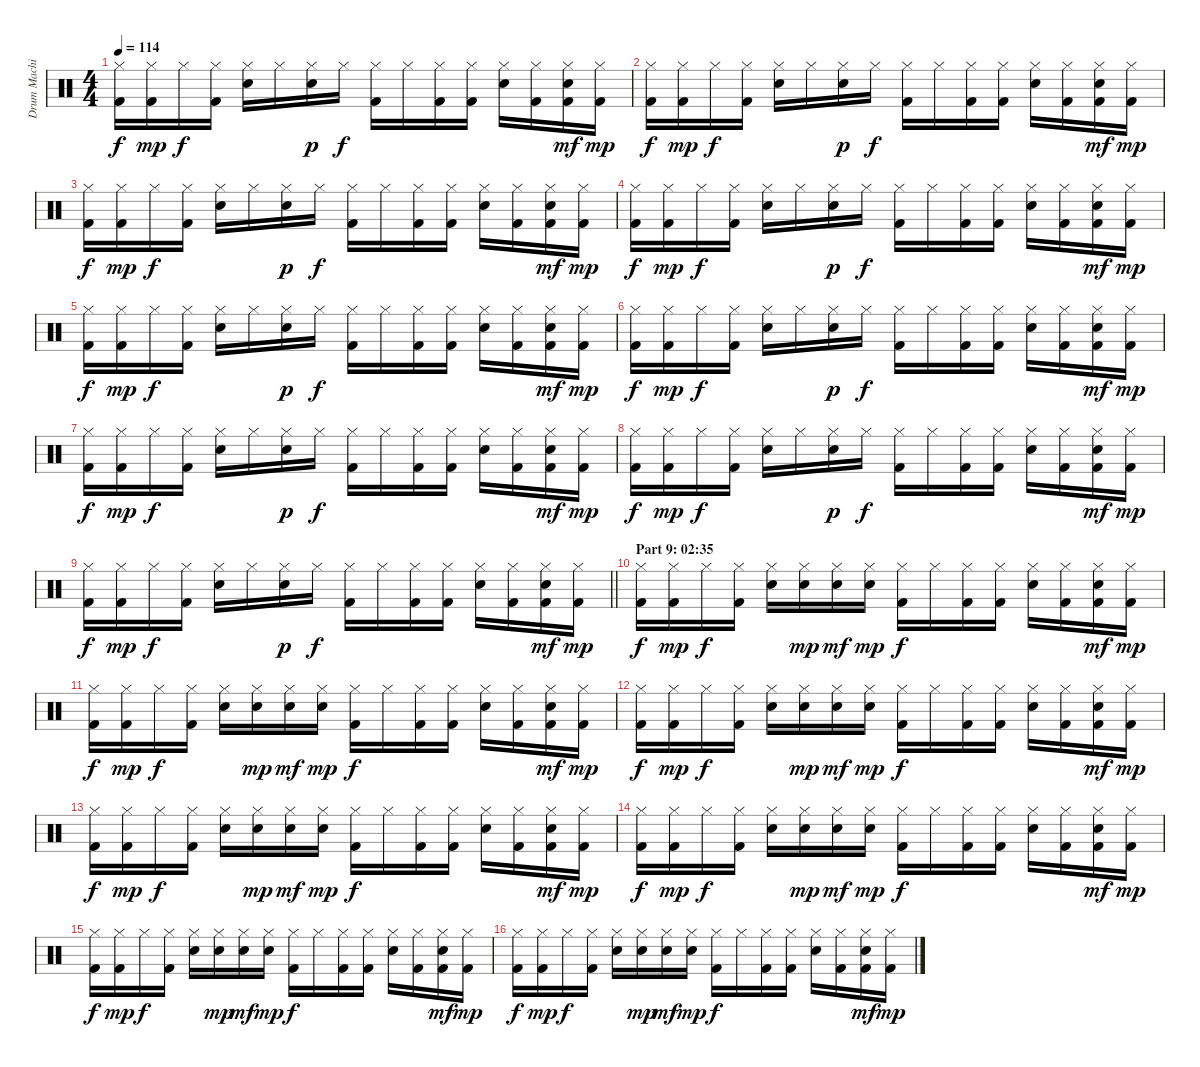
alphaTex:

\track ("Drum Machine" "Drum Machi") {instrument percussion}
\staff {score}
\articulation defaults
\ts (4 4)
\tempo 114
\clef neutral
\ks c
("Hi-Hat (closed)" "Kick (hit) 2").16{dy f} ("Hi-Hat (closed)" "Kick (hit) 2").16{dy mp} "Hi-Hat (closed)".16{dy f} ("Hi-Hat (closed)" "Kick (hit) 2").16 ("Hi-Hat (closed)" "Electric Snare (hit)").16 "Hi-Hat (closed)".16 ("Hi-Hat (closed)" "Electric Snare (hit)").16{dy p} "Hi-Hat (closed)".16{dy f} ("Hi-Hat (closed)" "Kick (hit) 2").16 "Hi-Hat (closed)".16 ("Hi-Hat (closed)" "Kick (hit) 2").16 ("Hi-Hat (closed)" "Kick (hit) 2").16 ("Hi-Hat (closed)" "Electric Snare (hit)").16 ("Hi-Hat (closed)" "Kick (hit) 2").16 ("Hi-Hat (closed)" "Electric Snare (hit)" "Kick (hit) 2").16{dy mf} ("Hi-Hat (closed)" "Kick (hit) 2").16{dy mp} |
("Hi-Hat (closed)" "Kick (hit) 2").16{dy f} ("Hi-Hat (closed)" "Kick (hit) 2").16{dy mp} "Hi-Hat (closed)".16{dy f} ("Hi-Hat (closed)" "Kick (hit) 2").16 ("Hi-Hat (closed)" "Electric Snare (hit)").16 "Hi-Hat (closed)".16 ("Hi-Hat (closed)" "Electric Snare (hit)").16{dy p} "Hi-Hat (closed)".16{dy f} ("Hi-Hat (closed)" "Kick (hit) 2").16 "Hi-Hat (closed)".16 ("Hi-Hat (closed)" "Kick (hit) 2").16 ("Hi-Hat (closed)" "Kick (hit) 2").16 ("Hi-Hat (closed)" "Electric Snare (hit)").16 ("Hi-Hat (closed)" "Kick (hit) 2").16 ("Hi-Hat (closed)" "Electric Snare (hit)" "Kick (hit) 2").16{dy mf} ("Hi-Hat (closed)" "Kick (hit) 2").16{dy mp} |
("Hi-Hat (closed)" "Kick (hit) 2").16{dy f} ("Hi-Hat (closed)" "Kick (hit) 2").16{dy mp} "Hi-Hat (closed)".16{dy f} ("Hi-Hat (closed)" "Kick (hit) 2").16 ("Hi-Hat (closed)" "Electric Snare (hit)").16 "Hi-Hat (closed)".16 ("Hi-Hat (closed)" "Electric Snare (hit)").16{dy p} "Hi-Hat (closed)".16{dy f} ("Hi-Hat (closed)" "Kick (hit) 2").16 "Hi-Hat (closed)".16 ("Hi-Hat (closed)" "Kick (hit) 2").16 ("Hi-Hat (closed)" "Kick (hit) 2").16 ("Hi-Hat (closed)" "Electric Snare (hit)").16 ("Hi-Hat (closed)" "Kick (hit) 2").16 ("Hi-Hat (closed)" "Electric Snare (hit)" "Kick (hit) 2").16{dy mf} ("Hi-Hat (closed)" "Kick (hit) 2").16{dy mp} |
("Hi-Hat (closed)" "Kick (hit) 2").16{dy f} ("Hi-Hat (closed)" "Kick (hit) 2").16{dy mp} "Hi-Hat (closed)".16{dy f} ("Hi-Hat (closed)" "Kick (hit) 2").16 ("Hi-Hat (closed)" "Electric Snare (hit)").16 "Hi-Hat (closed)".16 ("Hi-Hat (closed)" "Electric Snare (hit)").16{dy p} "Hi-Hat (closed)".16{dy f} ("Hi-Hat (closed)" "Kick (hit) 2").16 "Hi-Hat (closed)".16 ("Hi-Hat (closed)" "Kick (hit) 2").16 ("Hi-Hat (closed)" "Kick (hit) 2").16 ("Hi-Hat (closed)" "Electric Snare (hit)").16 ("Hi-Hat (closed)" "Kick (hit) 2").16 ("Hi-Hat (closed)" "Electric Snare (hit)" "Kick (hit) 2").16{dy mf} ("Hi-Hat (closed)" "Kick (hit) 2").16{dy mp} |
("Hi-Hat (closed)" "Kick (hit) 2").16{dy f} ("Hi-Hat (closed)" "Kick (hit) 2").16{dy mp} "Hi-Hat (closed)".16{dy f} ("Hi-Hat (closed)" "Kick (hit) 2").16 ("Hi-Hat (closed)" "Electric Snare (hit)").16 "Hi-Hat (closed)".16 ("Hi-Hat (closed)" "Electric Snare (hit)").16{dy p} "Hi-Hat (closed)".16{dy f} ("Hi-Hat (closed)" "Kick (hit) 2").16 "Hi-Hat (closed)".16 ("Hi-Hat (closed)" "Kick (hit) 2").16 ("Hi-Hat (closed)" "Kick (hit) 2").16 ("Hi-Hat (closed)" "Electric Snare (hit)").16 ("Hi-Hat (closed)" "Kick (hit) 2").16 ("Hi-Hat (closed)" "Electric Snare (hit)" "Kick (hit) 2").16{dy mf} ("Hi-Hat (closed)" "Kick (hit) 2").16{dy mp} |
("Hi-Hat (closed)" "Kick (hit) 2").16{dy f} ("Hi-Hat (closed)" "Kick (hit) 2").16{dy mp} "Hi-Hat (closed)".16{dy f} ("Hi-Hat (closed)" "Kick (hit) 2").16 ("Hi-Hat (closed)" "Electric Snare (hit)").16 "Hi-Hat (closed)".16 ("Hi-Hat (closed)" "Electric Snare (hit)").16{dy p} "Hi-Hat (closed)".16{dy f} ("Hi-Hat (closed)" "Kick (hit) 2").16 "Hi-Hat (closed)".16 ("Hi-Hat (closed)" "Kick (hit) 2").16 ("Hi-Hat (closed)" "Kick (hit) 2").16 ("Hi-Hat (closed)" "Electric Snare (hit)").16 ("Hi-Hat (closed)" "Kick (hit) 2").16 ("Hi-Hat (closed)" "Electric Snare (hit)" "Kick (hit) 2").16{dy mf} ("Hi-Hat (closed)" "Kick (hit) 2").16{dy mp} |
("Hi-Hat (closed)" "Kick (hit) 2").16{dy f} ("Hi-Hat (closed)" "Kick (hit) 2").16{dy mp} "Hi-Hat (closed)".16{dy f} ("Hi-Hat (closed)" "Kick (hit) 2").16 ("Hi-Hat (closed)" "Electric Snare (hit)").16 "Hi-Hat (closed)".16 ("Hi-Hat (closed)" "Electric Snare (hit)").16{dy p} "Hi-Hat (closed)".16{dy f} ("Hi-Hat (closed)" "Kick (hit) 2").16 "Hi-Hat (closed)".16 ("Hi-Hat (closed)" "Kick (hit) 2").16 ("Hi-Hat (closed)" "Kick (hit) 2").16 ("Hi-Hat (closed)" "Electric Snare (hit)").16 ("Hi-Hat (closed)" "Kick (hit) 2").16 ("Hi-Hat (closed)" "Electric Snare (hit)" "Kick (hit) 2").16{dy mf} ("Hi-Hat (closed)" "Kick (hit) 2").16{dy mp} |
("Hi-Hat (closed)" "Kick (hit) 2").16{dy f} ("Hi-Hat (closed)" "Kick (hit) 2").16{dy mp} "Hi-Hat (closed)".16{dy f} ("Hi-Hat (closed)" "Kick (hit) 2").16 ("Hi-Hat (closed)" "Electric Snare (hit)").16 "Hi-Hat (closed)".16 ("Hi-Hat (closed)" "Electric Snare (hit)").16{dy p} "Hi-Hat (closed)".16{dy f} ("Hi-Hat (closed)" "Kick (hit) 2").16 "Hi-Hat (closed)".16 ("Hi-Hat (closed)" "Kick (hit) 2").16 ("Hi-Hat (closed)" "Kick (hit) 2").16 ("Hi-Hat (closed)" "Electric Snare (hit)").16 ("Hi-Hat (closed)" "Kick (hit) 2").16 ("Hi-Hat (closed)" "Electric Snare (hit)" "Kick (hit) 2").16{dy mf} ("Hi-Hat (closed)" "Kick (hit) 2").16{dy mp} |
\barLineRight lightlight
("Hi-Hat (closed)" "Kick (hit) 2").16{dy f} ("Hi-Hat (closed)" "Kick (hit) 2").16{dy mp} "Hi-Hat (closed)".16{dy f} ("Hi-Hat (closed)" "Kick (hit) 2").16 ("Hi-Hat (closed)" "Electric Snare (hit)").16 "Hi-Hat (closed)".16 ("Hi-Hat (closed)" "Electric Snare (hit)").16{dy p} "Hi-Hat (closed)".16{dy f} ("Hi-Hat (closed)" "Kick (hit) 2").16 "Hi-Hat (closed)".16 ("Hi-Hat (closed)" "Kick (hit) 2").16 ("Hi-Hat (closed)" "Kick (hit) 2").16 ("Hi-Hat (closed)" "Electric Snare (hit)").16 ("Hi-Hat (closed)" "Kick (hit) 2").16 ("Hi-Hat (closed)" "Electric Snare (hit)" "Kick (hit) 2").16{dy mf} ("Hi-Hat (closed)" "Kick (hit) 2").16{dy mp} |
\section ("" "Part 9: 02:35")
("Hi-Hat (closed)" "Kick (hit) 2").16{dy f} ("Hi-Hat (closed)" "Kick (hit) 2").16{dy mp} "Hi-Hat (closed)".16{dy f} ("Hi-Hat (closed)" "Kick (hit) 2").16 ("Hi-Hat (closed)" "Electric Snare (hit)").16 ("Hi-Hat (closed)" "Electric Snare (hit)").16{dy mp} ("Hi-Hat (closed)" "Electric Snare (hit)").16{dy mf} ("Hi-Hat (closed)" "Electric Snare (hit)").16{dy mp} ("Hi-Hat (closed)" "Kick (hit) 2").16{dy f} "Hi-Hat (closed)".16 ("Hi-Hat (closed)" "Kick (hit) 2").16 ("Hi-Hat (closed)" "Kick (hit) 2").16 ("Hi-Hat (closed)" "Electric Snare (hit)").16 ("Hi-Hat (closed)" "Kick (hit) 2").16 ("Hi-Hat (closed)" "Electric Snare (hit)" "Kick (hit) 2").16{dy mf} ("Hi-Hat (closed)" "Kick (hit) 2").16{dy mp} |
("Hi-Hat (closed)" "Kick (hit) 2").16{dy f} ("Hi-Hat (closed)" "Kick (hit) 2").16{dy mp} "Hi-Hat (closed)".16{dy f} ("Hi-Hat (closed)" "Kick (hit) 2").16 ("Hi-Hat (closed)" "Electric Snare (hit)").16 ("Hi-Hat (closed)" "Electric Snare (hit)").16{dy mp} ("Hi-Hat (closed)" "Electric Snare (hit)").16{dy mf} ("Hi-Hat (closed)" "Electric Snare (hit)").16{dy mp} ("Hi-Hat (closed)" "Kick (hit) 2").16{dy f} "Hi-Hat (closed)".16 ("Hi-Hat (closed)" "Kick (hit) 2").16 ("Hi-Hat (closed)" "Kick (hit) 2").16 ("Hi-Hat (closed)" "Electric Snare (hit)").16 ("Hi-Hat (closed)" "Kick (hit) 2").16 ("Hi-Hat (closed)" "Electric Snare (hit)" "Kick (hit) 2").16{dy mf} ("Hi-Hat (closed)" "Kick (hit) 2").16{dy mp} |
("Hi-Hat (closed)" "Kick (hit) 2").16{dy f} ("Hi-Hat (closed)" "Kick (hit) 2").16{dy mp} "Hi-Hat (closed)".16{dy f} ("Hi-Hat (closed)" "Kick (hit) 2").16 ("Hi-Hat (closed)" "Electric Snare (hit)").16 ("Hi-Hat (closed)" "Electric Snare (hit)").16{dy mp} ("Hi-Hat (closed)" "Electric Snare (hit)").16{dy mf} ("Hi-Hat (closed)" "Electric Snare (hit)").16{dy mp} ("Hi-Hat (closed)" "Kick (hit) 2").16{dy f} "Hi-Hat (closed)".16 ("Hi-Hat (closed)" "Kick (hit) 2").16 ("Hi-Hat (closed)" "Kick (hit) 2").16 ("Hi-Hat (closed)" "Electric Snare (hit)").16 ("Hi-Hat (closed)" "Kick (hit) 2").16 ("Hi-Hat (closed)" "Electric Snare (hit)" "Kick (hit) 2").16{dy mf} ("Hi-Hat (closed)" "Kick (hit) 2").16{dy mp} |
("Hi-Hat (closed)" "Kick (hit) 2").16{dy f} ("Hi-Hat (closed)" "Kick (hit) 2").16{dy mp} "Hi-Hat (closed)".16{dy f} ("Hi-Hat (closed)" "Kick (hit) 2").16 ("Hi-Hat (closed)" "Electric Snare (hit)").16 ("Hi-Hat (closed)" "Electric Snare (hit)").16{dy mp} ("Hi-Hat (closed)" "Electric Snare (hit)").16{dy mf} ("Hi-Hat (closed)" "Electric Snare (hit)").16{dy mp} ("Hi-Hat (closed)" "Kick (hit) 2").16{dy f} "Hi-Hat (closed)".16 ("Hi-Hat (closed)" "Kick (hit) 2").16 ("Hi-Hat (closed)" "Kick (hit) 2").16 ("Hi-Hat (closed)" "Electric Snare (hit)").16 ("Hi-Hat (closed)" "Kick (hit) 2").16 ("Hi-Hat (closed)" "Electric Snare (hit)" "Kick (hit) 2").16{dy mf} ("Hi-Hat (closed)" "Kick (hit) 2").16{dy mp} |
("Hi-Hat (closed)" "Kick (hit) 2").16{dy f} ("Hi-Hat (closed)" "Kick (hit) 2").16{dy mp} "Hi-Hat (closed)".16{dy f} ("Hi-Hat (closed)" "Kick (hit) 2").16 ("Hi-Hat (closed)" "Electric Snare (hit)").16 ("Hi-Hat (closed)" "Electric Snare (hit)").16{dy mp} ("Hi-Hat (closed)" "Electric Snare (hit)").16{dy mf} ("Hi-Hat (closed)" "Electric Snare (hit)").16{dy mp} ("Hi-Hat (closed)" "Kick (hit) 2").16{dy f} "Hi-Hat (closed)".16 ("Hi-Hat (closed)" "Kick (hit) 2").16 ("Hi-Hat (closed)" "Kick (hit) 2").16 ("Hi-Hat (closed)" "Electric Snare (hit)").16 ("Hi-Hat (closed)" "Kick (hit) 2").16 ("Hi-Hat (closed)" "Electric Snare (hit)" "Kick (hit) 2").16{dy mf} ("Hi-Hat (closed)" "Kick (hit) 2").16{dy mp} |
("Hi-Hat (closed)" "Kick (hit) 2").16{dy f} ("Hi-Hat (closed)" "Kick (hit) 2").16{dy mp} "Hi-Hat (closed)".16{dy f} ("Hi-Hat (closed)" "Kick (hit) 2").16 ("Hi-Hat (closed)" "Electric Snare (hit)").16 ("Hi-Hat (closed)" "Electric Snare (hit)").16{dy mp} ("Hi-Hat (closed)" "Electric Snare (hit)").16{dy mf} ("Hi-Hat (closed)" "Electric Snare (hit)").16{dy mp} ("Hi-Hat (closed)" "Kick (hit) 2").16{dy f} "Hi-Hat (closed)".16 ("Hi-Hat (closed)" "Kick (hit) 2").16 ("Hi-Hat (closed)" "Kick (hit) 2").16 ("Hi-Hat (closed)" "Electric Snare (hit)").16 ("Hi-Hat (closed)" "Kick (hit) 2").16 ("Hi-Hat (closed)" "Electric Snare (hit)" "Kick (hit) 2").16{dy mf} ("Hi-Hat (closed)" "Kick (hit) 2").16{dy mp} |
("Hi-Hat (closed)" "Kick (hit) 2").16{dy f} ("Hi-Hat (closed)" "Kick (hit) 2").16{dy mp} "Hi-Hat (closed)".16{dy f} ("Hi-Hat (closed)" "Kick (hit) 2").16 ("Hi-Hat (closed)" "Electric Snare (hit)").16 ("Hi-Hat (closed)" "Electric Snare (hit)").16{dy mp} ("Hi-Hat (closed)" "Electric Snare (hit)").16{dy mf} ("Hi-Hat (closed)" "Electric Snare (hit)").16{dy mp} ("Hi-Hat (closed)" "Kick (hit) 2").16{dy f} "Hi-Hat (closed)".16 ("Hi-Hat (closed)" "Kick (hit) 2").16 ("Hi-Hat (closed)" "Kick (hit) 2").16 ("Hi-Hat (closed)" "Electric Snare (hit)").16 ("Hi-Hat (closed)" "Kick (hit) 2").16 ("Hi-Hat (closed)" "Electric Snare (hit)" "Kick (hit) 2").16{dy mf} ("Hi-Hat (closed)" "Kick (hit) 2").16{dy mp}
